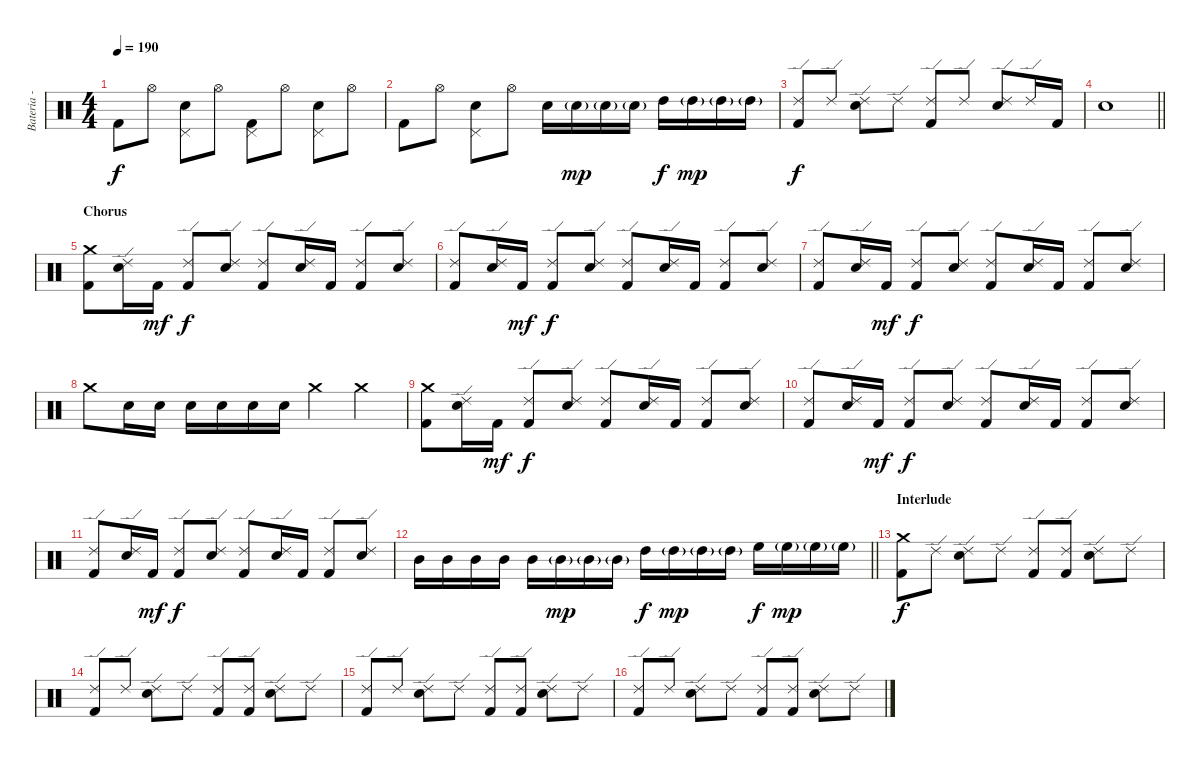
\track ("Bateria - Larzon" "Bateria - ") {instrument percussion}
\staff {score}
\articulation defaults
\ts (4 4)
\tempo 190
\clef neutral
\ks c "Kick (hit) 2".8{dy f} "Hi-Hat (open)".8
("Electric Snare (hit)" "Pedal Hi-Hat (hit)").8 "Hi-Hat (open)".8 ("Kick (hit) 2" "Pedal Hi-Hat (hit)").8 "Hi-Hat (open)".8 ("Electric Snare (hit)" "Pedal Hi-Hat (hit)").8 "Hi-Hat (open)".8 |
"Kick (hit) 2".8 "Hi-Hat (open)".8 ("Electric Snare (hit)" "Pedal Hi-Hat (hit)").8 "Hi-Hat (open)".8 "Electric Snare (hit)".16 "Electric Snare (hit)"{g}.16{dy mp} "Electric Snare (hit)"{g}.16 "Electric Snare (hit)"{g}.16 "High Tom (hit)".16{dy f} "High Tom (hit)"{g}.16{dy mp} "High Tom (hit)"{g}.16 "High Tom (hit)"{g}.16 |
("Kick (hit) 2" "Ride (edge) 2").8{dy f} "Ride (edge) 2".8 ("Electric Snare (hit)" "Ride (edge) 2").8 "Ride (edge) 2".8 ("Kick (hit) 2" "Ride (edge) 2").8 "Ride (edge) 2".8 ("Electric Snare (hit)" "Ride (edge) 2").8 "Ride (edge) 2".16 "Kick (hit) 2".16 |
\barLineRight lightlight "Electric Snare (hit)".1
|
\section ("" "Chorus")
("Kick (hit) 2" "Crash medium (hit)").8 ("Electric Snare (hit)" "Ride (edge) 2").16 "Kick (hit) 2".16{dy mf} ("Kick (hit) 2" "Ride (edge) 2").8{dy f} ("Electric Snare (hit)" "Ride (edge) 2").8 ("Kick (hit) 2" "Ride (edge) 2").8 ("Electric Snare (hit)" "Ride (edge) 2").16 "Kick (hit) 2".16 ("Kick (hit) 2" "Ride (edge) 2").8 ("Electric Snare (hit)" "Ride (edge) 2").8 |
("Kick (hit) 2" "Ride (edge) 2").8 ("Electric Snare (hit)" "Ride (edge) 2").16 "Kick (hit) 2".16{dy mf} ("Kick (hit) 2" "Ride (edge) 2").8{dy f} ("Electric Snare (hit)" "Ride (edge) 2").8 ("Kick (hit) 2" "Ride (edge) 2").8 ("Electric Snare (hit)" "Ride (edge) 2").16 "Kick (hit) 2".16 ("Kick (hit) 2" "Ride (edge) 2").8 ("Electric Snare (hit)" "Ride (edge) 2").8 |
("Kick (hit) 2" "Ride (edge) 2").8 ("Electric Snare (hit)" "Ride (edge) 2").16 "Kick (hit) 2".16{dy mf} ("Kick (hit) 2" "Ride (edge) 2").8{dy f} ("Electric Snare (hit)" "Ride (edge) 2").8 ("Kick (hit) 2" "Ride (edge) 2").8 ("Electric Snare (hit)" "Ride (edge) 2").16 "Kick (hit) 2".16 ("Kick (hit) 2" "Ride (edge) 2").8 ("Electric Snare (hit)" "Ride (edge) 2").8 |
"Crash medium (hit)".8 "Electric Snare (hit)".16 "Electric Snare (hit)".16 "Electric Snare (hit)".16 "Electric Snare (hit)".16 "Electric Snare (hit)".16 "Electric Snare (hit)".16 "Crash medium (hit)".4 "Crash medium (hit)".4 |
("Kick (hit) 2" "Crash medium (hit)").8 ("Electric Snare (hit)" "Ride (edge) 2").16 "Kick (hit) 2".16{dy mf} ("Kick (hit) 2" "Ride (edge) 2").8{dy f} ("Electric Snare (hit)" "Ride (edge) 2").8 ("Kick (hit) 2" "Ride (edge) 2").8 ("Electric Snare (hit)" "Ride (edge) 2").16 "Kick (hit) 2".16 ("Kick (hit) 2" "Ride (edge) 2").8 ("Electric Snare (hit)" "Ride (edge) 2").8 |
("Kick (hit) 2" "Ride (edge) 2").8 ("Electric Snare (hit)" "Ride (edge) 2").16 "Kick (hit) 2".16{dy mf} ("Kick (hit) 2" "Ride (edge) 2").8{dy f} ("Electric Snare (hit)" "Ride (edge) 2").8 ("Kick (hit) 2" "Ride (edge) 2").8 ("Electric Snare (hit)" "Ride (edge) 2").16 "Kick (hit) 2".16 ("Kick (hit) 2" "Ride (edge) 2").8 ("Electric Snare (hit)" "Ride (edge) 2").8 |
("Kick (hit) 2" "Ride (edge) 2").8 ("Electric Snare (hit)" "Ride (edge) 2").16 "Kick (hit) 2".16{dy mf} ("Kick (hit) 2" "Ride (edge) 2").8{dy f} ("Electric Snare (hit)" "Ride (edge) 2").8 ("Kick (hit) 2" "Ride (edge) 2").8 ("Electric Snare (hit)" "Ride (edge) 2").16 "Kick (hit) 2".16 ("Kick (hit) 2" "Ride (edge) 2").8 ("Electric Snare (hit)" "Ride (edge) 2").8 |
\barLineRight lightlight "Mid Tom (hit)".16 "Mid Tom (hit)".16 "Mid Tom (hit)".16 "Mid Tom (hit)".16 "Mid Tom (hit)".16 "Mid Tom (hit)"{g}.16{dy mp} "Mid Tom (hit)"{g}.16 "Mid Tom (hit)"{g}.16 "High Tom (hit)".16{dy f} "High Tom (hit)"{g}.16{dy mp} "High Tom (hit)"{g}.16 "High Tom (hit)"{g}.16 "High Floor Tom (hit)".16{dy f} "High Floor Tom (hit)"{g}.16{dy mp} "High Floor Tom (hit)"{g}.16 "High Floor Tom (hit)"{g}.16
|
\section ("" "Interlude")
("Kick (hit) 2" "Crash medium (hit)").8{dy f} "Ride (edge) 2".8 ("Electric Snare (hit)" "Ride (edge) 2").8 "Ride (edge) 2".8 ("Kick (hit) 2" "Ride (edge) 2").8 ("Kick (hit) 2" "Ride (edge) 2").8 ("Electric Snare (hit)" "Ride (edge) 2").8 "Ride (edge) 2".8 |
("Kick (hit) 2" "Ride (edge) 2").8 "Ride (edge) 2".8 ("Electric Snare (hit)" "Ride (edge) 2").8 "Ride (edge) 2".8 ("Kick (hit) 2" "Ride (edge) 2").8 ("Kick (hit) 2" "Ride (edge) 2").8 ("Electric Snare (hit)" "Ride (edge) 2").8 "Ride (edge) 2".8 |
("Kick (hit) 2" "Ride (edge) 2").8 "Ride (edge) 2".8 ("Electric Snare (hit)" "Ride (edge) 2").8 "Ride (edge) 2".8 ("Kick (hit) 2" "Ride (edge) 2").8 ("Kick (hit) 2" "Ride (edge) 2").8 ("Electric Snare (hit)" "Ride (edge) 2").8 "Ride (edge) 2".8 |
("Kick (hit) 2" "Ride (edge) 2").8 "Ride (edge) 2".8 ("Electric Snare (hit)" "Ride (edge) 2").8 "Ride (edge) 2".8 ("Kick (hit) 2" "Ride (edge) 2").8 ("Kick (hit) 2" "Ride (edge) 2").8 ("Electric Snare (hit)" "Ride (edge) 2").8 "Ride (edge) 2".8
